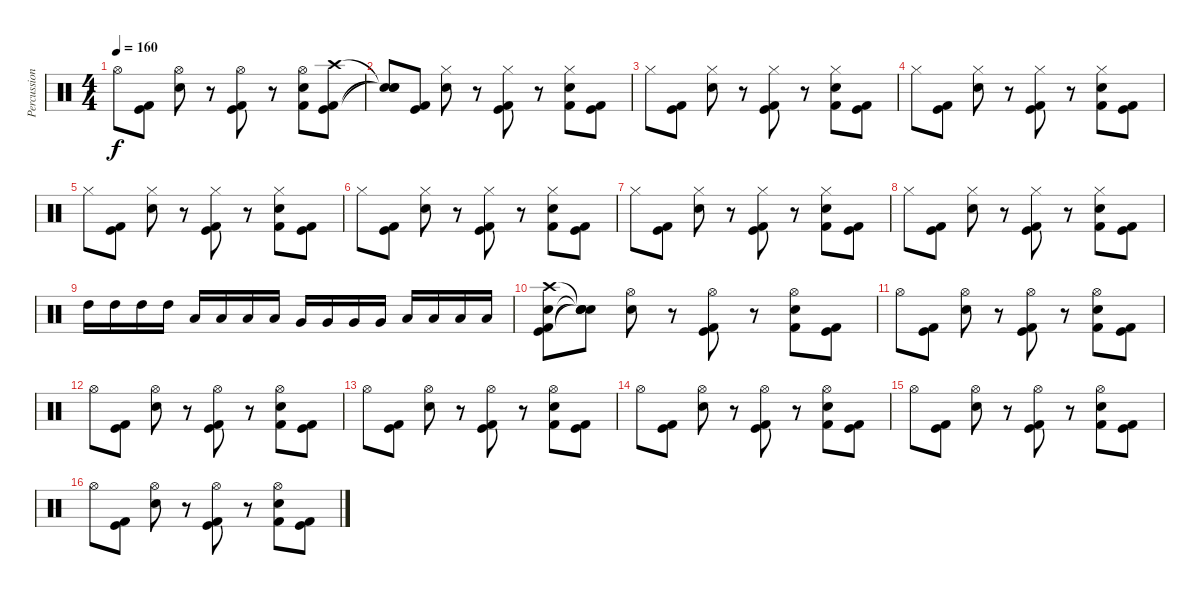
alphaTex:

\track ("Percussions" "Percussion") {instrument percussion}
\staff {score}
\articulation defaults
\ts (4 4)
\tempo 160
\clef neutral
\ks c "Hi-Hat (open)".8{dy f}
("Kick (hit) 2" "Kick (hit)").8 ("Snare (hit) 2" "Hi-Hat (open)").8 r.8 ("Kick (hit) 2" "Kick (hit)" "Hi-Hat (open)").8 r.8 ("Kick (hit) 2" "Snare (hit) 2" "Hi-Hat (open)").8 ("Kick (hit) 2" "Kick (hit)" "Crash high (hit)").8 |
("Snare (hit)"{t} "Snare (hit)"{t} "Snare (hit)"{t}).8 ("Kick (hit) 2" "Kick (hit)").8 ("Snare (hit) 2" "Hi-Hat (closed)").8 r.8 ("Kick (hit) 2" "Kick (hit)" "Hi-Hat (closed)").8 r.8 ("Kick (hit) 2" "Snare (hit) 2" "Hi-Hat (closed)").8 ("Kick (hit) 2" "Kick (hit)").8 |
"Hi-Hat (closed)".8 ("Kick (hit) 2" "Kick (hit)").8 ("Snare (hit) 2" "Hi-Hat (closed)").8 r.8 ("Kick (hit) 2" "Kick (hit)" "Hi-Hat (closed)").8 r.8 ("Kick (hit) 2" "Snare (hit) 2" "Hi-Hat (closed)").8 ("Kick (hit) 2" "Kick (hit)").8 |
"Hi-Hat (closed)".8 ("Kick (hit) 2" "Kick (hit)").8 ("Snare (hit) 2" "Hi-Hat (closed)").8 r.8 ("Kick (hit) 2" "Kick (hit)" "Hi-Hat (closed)").8 r.8 ("Kick (hit) 2" "Snare (hit) 2" "Hi-Hat (closed)").8 ("Kick (hit) 2" "Kick (hit)").8 |
"Hi-Hat (closed)".8 ("Kick (hit) 2" "Kick (hit)").8 ("Snare (hit) 2" "Hi-Hat (closed)").8 r.8 ("Kick (hit) 2" "Kick (hit)" "Hi-Hat (closed)").8 r.8 ("Kick (hit) 2" "Snare (hit) 2" "Hi-Hat (closed)").8 ("Kick (hit) 2" "Kick (hit)").8 |
"Hi-Hat (closed)".8 ("Kick (hit) 2" "Kick (hit)").8 ("Snare (hit) 2" "Hi-Hat (closed)").8 r.8 ("Kick (hit) 2" "Kick (hit)" "Hi-Hat (closed)").8 r.8 ("Kick (hit) 2" "Snare (hit) 2" "Hi-Hat (closed)").8 ("Kick (hit) 2" "Kick (hit)").8 |
"Hi-Hat (closed)".8 ("Kick (hit) 2" "Kick (hit)").8 ("Snare (hit) 2" "Hi-Hat (closed)").8 r.8 ("Kick (hit) 2" "Kick (hit)" "Hi-Hat (closed)").8 r.8 ("Kick (hit) 2" "Snare (hit) 2" "Hi-Hat (closed)").8 ("Kick (hit) 2" "Kick (hit)").8 |
"Hi-Hat (closed)".8 ("Kick (hit) 2" "Kick (hit)").8 ("Snare (hit) 2" "Hi-Hat (closed)").8 r.8 ("Kick (hit) 2" "Kick (hit)" "Hi-Hat (closed)").8 r.8 ("Kick (hit) 2" "Snare (hit) 2" "Hi-Hat (closed)").8 ("Kick (hit) 2" "Kick (hit)").8 |
"High Tom (hit)".16 "High Tom (hit)".16 "High Tom (hit)".16 "High Tom (hit)".16 "Low Tom (hit)".16 "Low Tom (hit)".16 "Low Tom (hit)".16 "Low Tom (hit)".16 "Very Low Tom (hit)".16 "Very Low Tom (hit)".16 "Very Low Tom (hit)".16 "Very Low Tom (hit)".16 "Low Floor Tom (hit)".16 "Low Floor Tom (hit)".16 "Low Floor Tom (hit)".16 "Low Floor Tom (hit)".16 |
("Snare (hit) 2" "Kick (hit)" "Kick (hit) 2" "Crash high (hit)").8 ("Snare (hit)"{t} "Snare (hit)"{t} "Snare (hit)"{t} "Snare (hit)"{t}).8 ("Snare (hit) 2" "Hi-Hat (open)").8 r.8 ("Kick (hit) 2" "Kick (hit)" "Hi-Hat (open)").8 r.8 ("Kick (hit) 2" "Snare (hit) 2" "Hi-Hat (open)").8 ("Kick (hit) 2" "Kick (hit)").8 |
"Hi-Hat (open)".8 ("Kick (hit) 2" "Kick (hit)").8 ("Snare (hit) 2" "Hi-Hat (open)").8 r.8 ("Kick (hit) 2" "Kick (hit)" "Hi-Hat (open)").8 r.8 ("Kick (hit) 2" "Snare (hit) 2" "Hi-Hat (open)").8 ("Kick (hit) 2" "Kick (hit)").8 |
"Hi-Hat (open)".8 ("Kick (hit) 2" "Kick (hit)").8 ("Snare (hit) 2" "Hi-Hat (open)").8 r.8 ("Kick (hit) 2" "Kick (hit)" "Hi-Hat (open)").8 r.8 ("Kick (hit) 2" "Snare (hit) 2" "Hi-Hat (open)").8 ("Kick (hit) 2" "Kick (hit)").8 |
"Hi-Hat (open)".8 ("Kick (hit) 2" "Kick (hit)").8 ("Snare (hit) 2" "Hi-Hat (open)").8 r.8 ("Kick (hit) 2" "Kick (hit)" "Hi-Hat (open)").8 r.8 ("Kick (hit) 2" "Snare (hit) 2" "Hi-Hat (open)").8 ("Kick (hit) 2" "Kick (hit)").8 |
"Hi-Hat (open)".8 ("Kick (hit) 2" "Kick (hit)").8 ("Snare (hit) 2" "Hi-Hat (open)").8 r.8 ("Kick (hit) 2" "Kick (hit)" "Hi-Hat (open)").8 r.8 ("Kick (hit) 2" "Snare (hit) 2" "Hi-Hat (open)").8 ("Kick (hit) 2" "Kick (hit)").8 |
"Hi-Hat (open)".8 ("Kick (hit) 2" "Kick (hit)").8 ("Snare (hit) 2" "Hi-Hat (open)").8 r.8 ("Kick (hit) 2" "Kick (hit)" "Hi-Hat (open)").8 r.8 ("Kick (hit) 2" "Snare (hit) 2" "Hi-Hat (open)").8 ("Kick (hit) 2" "Kick (hit)").8 |
"Hi-Hat (open)".8 ("Kick (hit) 2" "Kick (hit)").8 ("Snare (hit) 2" "Hi-Hat (open)").8 r.8 ("Kick (hit) 2" "Kick (hit)" "Hi-Hat (open)").8 r.8 ("Kick (hit) 2" "Snare (hit) 2" "Hi-Hat (open)").8 ("Kick (hit) 2" "Kick (hit)").8
